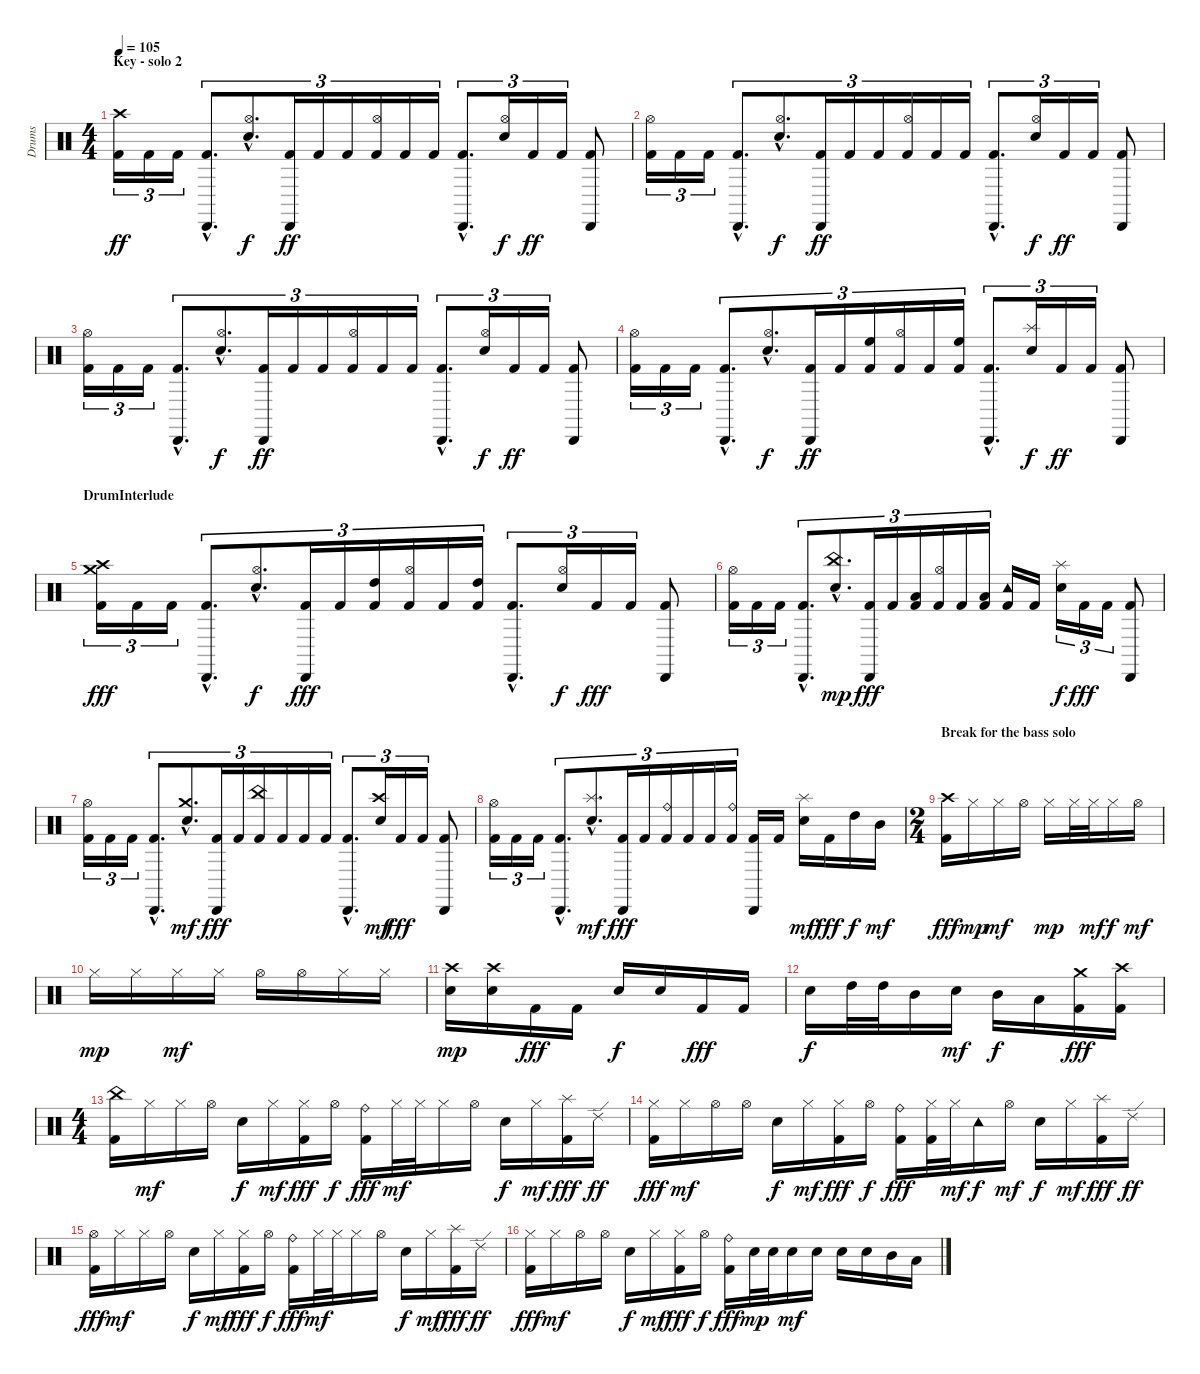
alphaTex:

\track ("Drums" "Drums") {instrument percussion}
\staff {score}
\articulation defaults
\ts (4 4)
\section ("" "Key - solo 2")
\tempo 105
\clef neutral
\ks c
("Crash high (hit)" "Kick (hit) 2").16{tu (3 2) dy ff} "Kick (hit) 2".16{tu (3 2)} "Kick (hit) 2".16{tu (3 2)} ("Cabasa (hit)"{hac} "Kick (hit) 2"{hac}).8{d tu (3 2)} ("Hi-Hat (open)"{hac} "Electric Snare (hit)"{hac}).8{d tu (3 2) dy f} ("Cabasa (hit)" "Kick (hit) 2").16{tu (3 2) dy ff} "Kick (hit) 2".16{tu (3 2)} "Kick (hit) 2".16{tu (3 2)} ("Hi-Hat (open)" "Kick (hit) 2").16{tu (3 2)} "Kick (hit) 2".16{tu (3 2)} "Kick (hit) 2".16{tu (3 2)} ("Cabasa (hit)"{hac} "Kick (hit) 2"{hac}).8{d tu (3 2)} ("Hi-Hat (open)" "Electric Snare (hit)").16{tu (3 2) dy f} "Kick (hit) 2".16{tu (3 2) dy ff} "Kick (hit) 2".16{tu (3 2)} ("Cabasa (hit)" "Kick (hit) 2").8 |
("Hi-Hat (open)" "Kick (hit) 2").16{tu (3 2)} "Kick (hit) 2".16{tu (3 2)} "Kick (hit) 2".16{tu (3 2)} ("Cabasa (hit)"{hac} "Kick (hit) 2"{hac}).8{d tu (3 2)} ("Hi-Hat (open)"{hac} "Electric Snare (hit)"{hac}).8{d tu (3 2) dy f} ("Cabasa (hit)" "Kick (hit) 2").16{tu (3 2) dy ff} "Kick (hit) 2".16{tu (3 2)} "Kick (hit) 2".16{tu (3 2)} ("Hi-Hat (open)" "Kick (hit) 2").16{tu (3 2)} "Kick (hit) 2".16{tu (3 2)} "Kick (hit) 2".16{tu (3 2)} ("Cabasa (hit)"{hac} "Kick (hit) 2"{hac}).8{d tu (3 2)} ("Hi-Hat (open)" "Electric Snare (hit)").16{tu (3 2) dy f} "Kick (hit) 2".16{tu (3 2) dy ff} "Kick (hit) 2".16{tu (3 2)} ("Cabasa (hit)" "Kick (hit) 2").8 |
("Hi-Hat (open)" "Kick (hit) 2").16{tu (3 2)} "Kick (hit) 2".16{tu (3 2)} "Kick (hit) 2".16{tu (3 2)} ("Cabasa (hit)"{hac} "Kick (hit) 2"{hac}).8{d tu (3 2)} ("Hi-Hat (open)"{hac} "Electric Snare (hit)"{hac}).8{d tu (3 2) dy f} ("Cabasa (hit)" "Kick (hit) 2").16{tu (3 2) dy ff} "Kick (hit) 2".16{tu (3 2)} "Kick (hit) 2".16{tu (3 2)} ("Hi-Hat (open)" "Kick (hit) 2").16{tu (3 2)} "Kick (hit) 2".16{tu (3 2)} "Kick (hit) 2".16{tu (3 2)} ("Cabasa (hit)"{hac} "Kick (hit) 2"{hac}).8{d tu (3 2)} ("Hi-Hat (open)" "Electric Snare (hit)").16{tu (3 2) dy f} "Kick (hit) 2".16{tu (3 2) dy ff} "Kick (hit) 2".16{tu (3 2)} ("Cabasa (hit)" "Kick (hit) 2").8 |
("Hi-Hat (open)" "Kick (hit) 2").16{tu (3 2)} "Kick (hit) 2".16{tu (3 2)} "Kick (hit) 2".16{tu (3 2)} ("Cabasa (hit)"{hac} "Kick (hit) 2"{hac}).8{d tu (3 2)} ("Hi-Hat (open)"{hac} "Electric Snare (hit)"{hac}).8{d tu (3 2) dy f} ("Cabasa (hit)" "Kick (hit) 2").16{tu (3 2) dy ff} "Kick (hit) 2".16{tu (3 2)} ("High Floor Tom (hit)" "Kick (hit) 2").16{tu (3 2)} ("Hi-Hat (open)" "Kick (hit) 2").16{tu (3 2)} "Kick (hit) 2".16{tu (3 2)} ("High Floor Tom (hit)" "Kick (hit) 2").16{tu (3 2)} ("Cabasa (hit)"{hac} "Kick (hit) 2"{hac}).8{d tu (3 2)} ("Splash (hit)" "Electric Snare (hit)").16{tu (3 2) dy f} "Kick (hit) 2".16{tu (3 2) dy ff} "Kick (hit) 2".16{tu (3 2)} ("Cabasa (hit)" "Kick (hit) 2").8 |
\section ("" "DrumInterlude")
("Crash medium (hit)" "Crash high (hit)" "Kick (hit) 2").16{tu (3 2) dy fff} "Kick (hit) 2".16{tu (3 2)} "Kick (hit) 2".16{tu (3 2)} ("Cabasa (hit)"{hac} "Kick (hit) 2"{hac}).8{d tu (3 2)} ("Hi-Hat (open)"{hac} "Electric Snare (hit)"{hac}).8{d tu (3 2) dy f} ("Cabasa (hit)" "Kick (hit) 2").16{tu (3 2) dy fff} "Kick (hit) 2".16{tu (3 2)} ("High Tom (hit)" "Kick (hit) 2").16{tu (3 2)} ("Hi-Hat (open)" "Kick (hit) 2").16{tu (3 2)} "Kick (hit) 2".16{tu (3 2)} ("High Tom (hit)" "Kick (hit) 2").16{tu (3 2)} ("Cabasa (hit)"{hac} "Kick (hit) 2"{hac}).8{d tu (3 2)} ("Hi-Hat (open)" "Electric Snare (hit)").16{tu (3 2) dy f} "Kick (hit) 2".16{tu (3 2) dy fff} "Kick (hit) 2".16{tu (3 2)} ("Cabasa (hit)" "Kick (hit) 2").8 |
("Hi-Hat (open)" "Kick (hit) 2").16{tu (3 2)} "Kick (hit) 2".16{tu (3 2)} "Kick (hit) 2".16{tu (3 2)} ("Cabasa (hit)"{hac} "Kick (hit) 2"{hac}).8{d tu (3 2)} ("China (hit)"{hac} "Electric Snare (hit)"{hac}).8{d tu (3 2) dy mp} ("Cabasa (hit)" "Kick (hit) 2").16{tu (3 2) dy fff} "Kick (hit) 2".16{tu (3 2)} ("Low Tom (hit)" "Kick (hit) 2").16{tu (3 2)} ("Hi-Hat (open)" "Kick (hit) 2").16{tu (3 2)} "Kick (hit) 2".16{tu (3 2)} ("Low Tom (hit)" "Kick (hit) 2").16{tu (3 2)} ("Tambourine (hit)" "Kick (hit) 2").16 "Kick (hit) 2".16 ("Splash (hit)" "Electric Snare (hit)").16{tu (3 2) dy f} "Kick (hit) 2".16{tu (3 2) dy fff} "Kick (hit) 2".16{tu (3 2)} ("Cabasa (hit)" "Kick (hit) 2").8 |
("Hi-Hat (open)" "Kick (hit) 2").16{tu (3 2)} "Kick (hit) 2".16{tu (3 2)} "Kick (hit) 2".16{tu (3 2)} ("Cabasa (hit)"{hac} "Kick (hit) 2"{hac}).8{d tu (3 2)} ("Crash medium (hit)"{hac} "Electric Snare (hit)"{hac}).8{d tu (3 2) dy mf} ("Cabasa (hit)" "Kick (hit) 2").16{tu (3 2) dy fff} "Kick (hit) 2".16{tu (3 2)} ("China (hit)" "Kick (hit) 2").16{tu (3 2)} "Kick (hit) 2".16{tu (3 2)} "Kick (hit) 2".16{tu (3 2)} "Kick (hit) 2".16{tu (3 2)} ("Cabasa (hit)"{hac} "Kick (hit) 2"{hac}).8{d tu (3 2)} ("Crash high (hit)" "Electric Snare (hit)").16{tu (3 2) dy mf} "Kick (hit) 2".16{tu (3 2) dy fff} "Kick (hit) 2".16{tu (3 2)} ("Cabasa (hit)" "Kick (hit) 2").8 |
("Hi-Hat (open)" "Kick (hit) 2").16{tu (3 2)} "Kick (hit) 2".16{tu (3 2)} "Kick (hit) 2".16{tu (3 2)} ("Cabasa (hit)"{hac} "Kick (hit) 2"{hac}).8{d tu (3 2)} ("Splash (hit)"{hac} "Electric Snare (hit)"{hac}).8{d tu (3 2) dy mf} ("Cabasa (hit)" "Kick (hit) 2").16{tu (3 2) dy fff} "Kick (hit) 2".16{tu (3 2)} ("Ride (bell)" "Kick (hit) 2").16{tu (3 2)} "Kick (hit) 2".16{tu (3 2)} "Kick (hit) 2".16{tu (3 2)} ("Ride (bell)" "Kick (hit) 2").16{tu (3 2)} ("Cabasa (hit)" "Kick (hit) 2").16 "Kick (hit) 2".16 ("Splash (hit)" "Electric Snare (hit)").16{dy mf} "Kick (hit) 2".16{dy fff} "High Tom (hit)".16{dy f} "Mid Tom (hit)".16{dy mf} |
\ts (2 4)
\section ("" "Break for the bass solo")
("Crash high (hit)" "Kick (hit) 2").16{dy fff} "Hi-Hat (closed)".16{dy mp} "Hi-Hat (closed)".16{dy mf} "Hi-Hat (open)".16 "Hi-Hat (closed)".16{dy mp} "Hi-Hat (closed)".32 "Hi-Hat (closed)".32{dy mf} "Hi-Hat (closed)".16{dy f} "Hi-Hat (open)".16{dy mf} |
"Hi-Hat (closed)".16{dy mp} "Hi-Hat (closed)".16 "Hi-Hat (closed)".16{dy mf} "Hi-Hat (closed)".16 "Hi-Hat (open)".16 "Hi-Hat (open)".16 "Hi-Hat (closed)".16 "Hi-Hat (closed)".16 |
("Crash high (hit)" "Electric Snare (hit)").16{dy mp} ("Crash high (hit)" "Electric Snare (hit)").16 "Kick (hit) 2".16{dy fff} "Kick (hit) 2".16 "Electric Snare (hit)".16{dy f} "Electric Snare (hit)".16 "Kick (hit) 2".16{dy fff} "Kick (hit) 2".16 |
"Electric Snare (hit)".16{dy f} "High Tom (hit)".32 "High Tom (hit)".32 "Mid Tom (hit)".16 "Electric Snare (hit)".16{dy mf} "Mid Tom (hit)".16{dy f} "Low Tom (hit)".16 ("Crash medium (hit)" "Kick (hit) 2").16{dy fff} ("Crash high (hit)" "Kick (hit) 2").16 |
\ts (4 4)
("China (hit)" "Kick (hit) 2").16 "Hi-Hat (closed)".16{dy mf} "Hi-Hat (closed)".16 "Hi-Hat (open)".16 "Electric Snare (hit)".16{dy f} "Hi-Hat (closed)".16{dy mf} ("Hi-Hat (closed)" "Kick (hit) 2").16{dy fff} "Hi-Hat (open)".16{dy f} ("Ride (bell)" "Kick (hit) 2").16{dy fff} "Hi-Hat (closed)".32{dy mf} "Hi-Hat (closed)".32 "Hi-Hat (closed)".16 "Hi-Hat (open)".16 "Electric Snare (hit)".16{dy f} "Hi-Hat (closed)".16{dy mf} ("Splash (hit)" "Kick (hit) 2").16{dy fff} "Ride (edge) 2".16{dy ff} |
("Hi-Hat (closed)" "Kick (hit) 2").16{dy fff} "Hi-Hat (closed)".16{dy mf} "Hi-Hat (open)".16 "Hi-Hat (open)".16 "Electric Snare (hit)".16{dy f} "Hi-Hat (closed)".16{dy mf} ("Hi-Hat (closed)" "Kick (hit) 2").16{dy fff} "Hi-Hat (open)".16{dy f} ("Ride (bell)" "Kick (hit) 2").16{dy fff} ("Hi-Hat (closed)" "Kick (hit) 2").32 "Hi-Hat (closed)".32{dy mf} "Tambourine (hit)".16{dy f} "Hi-Hat (open)".16{dy mf} "Electric Snare (hit)".16{dy f} "Hi-Hat (closed)".16{dy mf} ("Splash (hit)" "Kick (hit) 2").16{dy fff} "Ride (edge) 2".16{dy ff} |
("Hi-Hat (open)" "Kick (hit) 2").16{dy fff} "Hi-Hat (closed)".16{dy mf} "Hi-Hat (closed)".16 "Hi-Hat (open)".16 "Electric Snare (hit)".16{dy f} "Hi-Hat (closed)".16{dy mf} ("Hi-Hat (closed)" "Kick (hit) 2").16{dy fff} "Hi-Hat (open)".16{dy f} ("Ride (bell)" "Kick (hit) 2").16{dy fff} "Hi-Hat (closed)".32{dy mf} "Hi-Hat (closed)".32 "Hi-Hat (closed)".16 "Hi-Hat (open)".16 "Electric Snare (hit)".16{dy f} "Hi-Hat (closed)".16{dy mf} ("Splash (hit)" "Kick (hit) 2").16{dy fff} "Ride (edge) 2".16{dy ff} |
("Hi-Hat (closed)" "Kick (hit) 2").16{dy fff} "Hi-Hat (closed)".16{dy mf} "Hi-Hat (open)".16 "Hi-Hat (open)".16 "Electric Snare (hit)".16{dy f} "Hi-Hat (closed)".16{dy mf} ("Hi-Hat (closed)" "Kick (hit) 2").16{dy fff} "Hi-Hat (open)".16{dy f} ("Ride (bell)" "Kick (hit) 2").16{dy fff} "Electric Snare (hit)".32{dy mp} "Electric Snare (hit)".32 "Electric Snare (hit)".16{dy mf} "Electric Snare (hit)".16 "Electric Snare (hit)".16 "Electric Snare (hit)".16 "Mid Tom (hit)".16 "Low Tom (hit)".16
